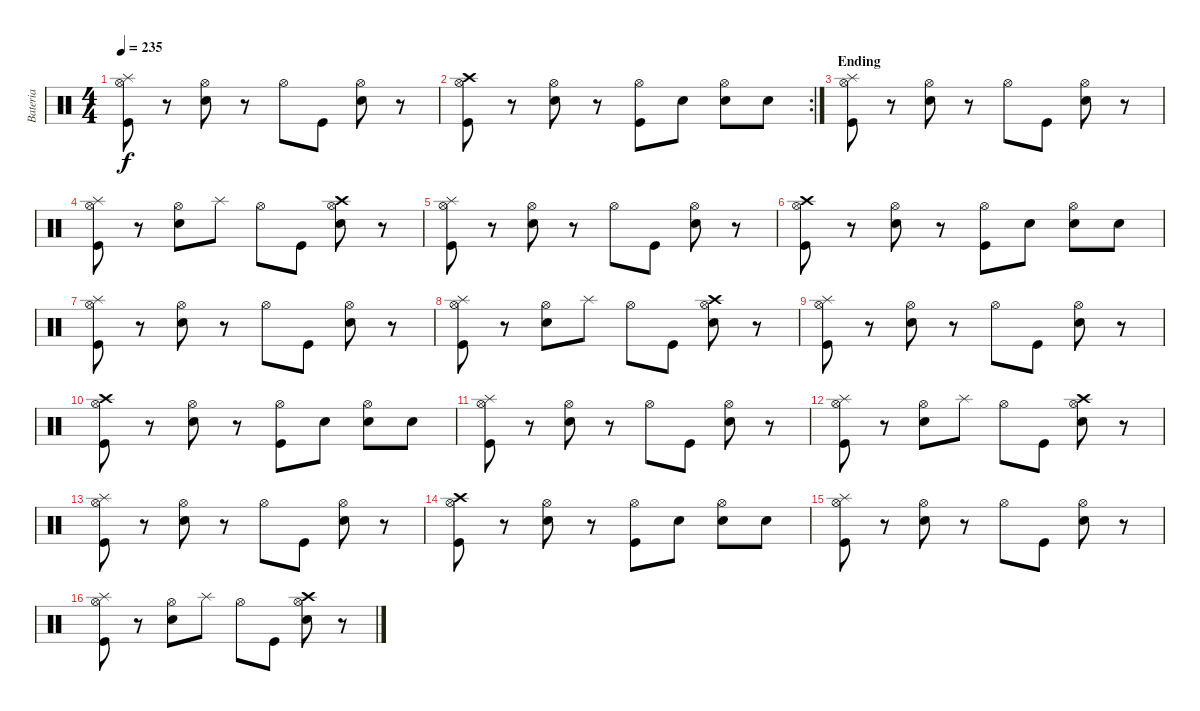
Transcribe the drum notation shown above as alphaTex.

\track ("Bateria" "Bateria") {instrument percussion}
\staff {score}
\articulation defaults
\ts (4 4)
\tempo 235
\clef neutral
\ks c
("Kick (hit)" "Hi-Hat (open)" "Splash (hit)").8{dy f} r.8 ("Electric Snare (hit)" "Hi-Hat (open)").8 r.8 "Hi-Hat (open)".8 "Kick (hit)".8 ("Electric Snare (hit)" "Hi-Hat (open)").8 r.8 |
\rc 2
("Kick (hit)" "Hi-Hat (open)" "Crash high (hit)").8 r.8 ("Electric Snare (hit)" "Hi-Hat (open)").8 r.8 ("Kick (hit)" "Hi-Hat (open)").8 "Electric Snare (hit)".8 ("Electric Snare (hit)" "Hi-Hat (open)").8 "Electric Snare (hit)".8 |
\section ("" "Ending")
("Kick (hit)" "Hi-Hat (open)" "Splash (hit)").8 r.8 ("Electric Snare (hit)" "Hi-Hat (open)").8 r.8 "Hi-Hat (open)".8 "Kick (hit)".8 ("Electric Snare (hit)" "Hi-Hat (open)").8 r.8 |
("Kick (hit)" "Hi-Hat (open)" "Splash (hit)").8 r.8 ("Electric Snare (hit)" "Hi-Hat (open)").8 "Splash (hit)".8 "Hi-Hat (open)".8 "Kick (hit)".8 ("Electric Snare (hit)" "Hi-Hat (open)" "Crash high (hit)").8 r.8 |
("Kick (hit)" "Hi-Hat (open)" "Splash (hit)").8 r.8 ("Electric Snare (hit)" "Hi-Hat (open)").8 r.8 "Hi-Hat (open)".8 "Kick (hit)".8 ("Electric Snare (hit)" "Hi-Hat (open)").8 r.8 |
("Kick (hit)" "Hi-Hat (open)" "Crash high (hit)").8 r.8 ("Electric Snare (hit)" "Hi-Hat (open)").8 r.8 ("Kick (hit)" "Hi-Hat (open)").8 "Electric Snare (hit)".8 ("Electric Snare (hit)" "Hi-Hat (open)").8 "Electric Snare (hit)".8 |
("Kick (hit)" "Hi-Hat (open)" "Splash (hit)").8 r.8 ("Electric Snare (hit)" "Hi-Hat (open)").8 r.8 "Hi-Hat (open)".8 "Kick (hit)".8 ("Electric Snare (hit)" "Hi-Hat (open)").8 r.8 |
("Kick (hit)" "Hi-Hat (open)" "Splash (hit)").8 r.8 ("Electric Snare (hit)" "Hi-Hat (open)").8 "Splash (hit)".8 "Hi-Hat (open)".8 "Kick (hit)".8 ("Electric Snare (hit)" "Hi-Hat (open)" "Crash high (hit)").8 r.8 |
("Kick (hit)" "Hi-Hat (open)" "Splash (hit)").8 r.8 ("Electric Snare (hit)" "Hi-Hat (open)").8 r.8 "Hi-Hat (open)".8 "Kick (hit)".8 ("Electric Snare (hit)" "Hi-Hat (open)").8 r.8 |
("Kick (hit)" "Hi-Hat (open)" "Crash high (hit)").8 r.8 ("Electric Snare (hit)" "Hi-Hat (open)").8 r.8 ("Kick (hit)" "Hi-Hat (open)").8 "Electric Snare (hit)".8 ("Electric Snare (hit)" "Hi-Hat (open)").8 "Electric Snare (hit)".8 |
("Kick (hit)" "Hi-Hat (open)" "Splash (hit)").8 r.8 ("Electric Snare (hit)" "Hi-Hat (open)").8 r.8 "Hi-Hat (open)".8 "Kick (hit)".8 ("Electric Snare (hit)" "Hi-Hat (open)").8 r.8 |
("Kick (hit)" "Hi-Hat (open)" "Splash (hit)").8 r.8 ("Electric Snare (hit)" "Hi-Hat (open)").8 "Splash (hit)".8 "Hi-Hat (open)".8 "Kick (hit)".8 ("Electric Snare (hit)" "Hi-Hat (open)" "Crash high (hit)").8 r.8 |
("Kick (hit)" "Hi-Hat (open)" "Splash (hit)").8 r.8 ("Electric Snare (hit)" "Hi-Hat (open)").8 r.8 "Hi-Hat (open)".8 "Kick (hit)".8 ("Electric Snare (hit)" "Hi-Hat (open)").8 r.8 |
("Kick (hit)" "Hi-Hat (open)" "Crash high (hit)").8 r.8 ("Electric Snare (hit)" "Hi-Hat (open)").8 r.8 ("Kick (hit)" "Hi-Hat (open)").8 "Electric Snare (hit)".8 ("Electric Snare (hit)" "Hi-Hat (open)").8 "Electric Snare (hit)".8 |
("Kick (hit)" "Hi-Hat (open)" "Splash (hit)").8 r.8 ("Electric Snare (hit)" "Hi-Hat (open)").8 r.8 "Hi-Hat (open)".8 "Kick (hit)".8 ("Electric Snare (hit)" "Hi-Hat (open)").8 r.8 |
("Kick (hit)" "Hi-Hat (open)" "Splash (hit)").8 r.8 ("Electric Snare (hit)" "Hi-Hat (open)").8 "Splash (hit)".8 "Hi-Hat (open)".8 "Kick (hit)".8 ("Electric Snare (hit)" "Hi-Hat (open)" "Crash high (hit)").8 r.8
